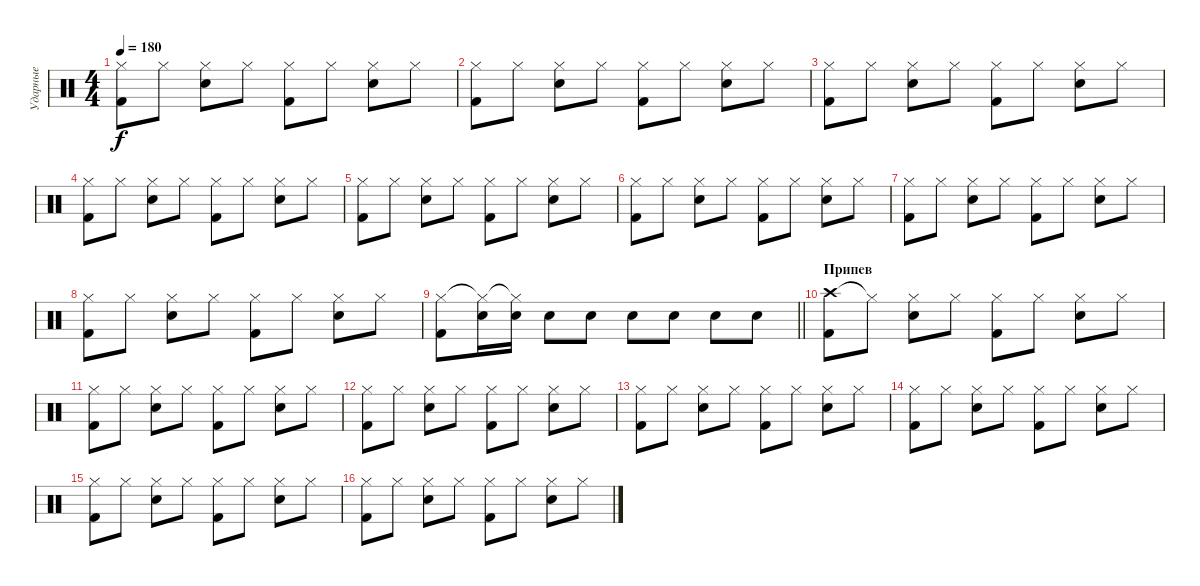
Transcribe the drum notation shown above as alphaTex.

\track ("Ударные" "Ударные") {instrument percussion}
\staff {score}
\articulation defaults
\ts (4 4)
\tempo 180
\clef neutral
\ks c
("Hi-Hat (closed)" "Kick (hit) 2").8{dy f} "Hi-Hat (closed)".8 ("Hi-Hat (closed)" "Electric Snare (hit)").8 "Hi-Hat (closed)".8 ("Hi-Hat (closed)" "Kick (hit) 2").8 "Hi-Hat (closed)".8 ("Hi-Hat (closed)" "Electric Snare (hit)").8 "Hi-Hat (closed)".8 |
("Hi-Hat (closed)" "Kick (hit) 2").8 "Hi-Hat (closed)".8 ("Hi-Hat (closed)" "Electric Snare (hit)").8 "Hi-Hat (closed)".8 ("Hi-Hat (closed)" "Kick (hit) 2").8 "Hi-Hat (closed)".8 ("Hi-Hat (closed)" "Electric Snare (hit)").8 "Hi-Hat (closed)".8 |
("Hi-Hat (closed)" "Kick (hit) 2").8 "Hi-Hat (closed)".8 ("Hi-Hat (closed)" "Electric Snare (hit)").8 "Hi-Hat (closed)".8 ("Hi-Hat (closed)" "Kick (hit) 2").8 "Hi-Hat (closed)".8 ("Hi-Hat (closed)" "Electric Snare (hit)").8 "Hi-Hat (closed)".8 |
("Hi-Hat (closed)" "Kick (hit) 2").8 "Hi-Hat (closed)".8 ("Hi-Hat (closed)" "Electric Snare (hit)").8 "Hi-Hat (closed)".8 ("Hi-Hat (closed)" "Kick (hit) 2").8 "Hi-Hat (closed)".8 ("Hi-Hat (closed)" "Electric Snare (hit)").8 "Hi-Hat (closed)".8 |
("Hi-Hat (closed)" "Kick (hit) 2").8 "Hi-Hat (closed)".8 ("Hi-Hat (closed)" "Electric Snare (hit)").8 "Hi-Hat (closed)".8 ("Hi-Hat (closed)" "Kick (hit) 2").8 "Hi-Hat (closed)".8 ("Hi-Hat (closed)" "Electric Snare (hit)").8 "Hi-Hat (closed)".8 |
("Hi-Hat (closed)" "Kick (hit) 2").8 "Hi-Hat (closed)".8 ("Hi-Hat (closed)" "Electric Snare (hit)").8 "Hi-Hat (closed)".8 ("Hi-Hat (closed)" "Kick (hit) 2").8 "Hi-Hat (closed)".8 ("Hi-Hat (closed)" "Electric Snare (hit)").8 "Hi-Hat (closed)".8 |
("Hi-Hat (closed)" "Kick (hit) 2").8 "Hi-Hat (closed)".8 ("Hi-Hat (closed)" "Electric Snare (hit)").8 "Hi-Hat (closed)".8 ("Hi-Hat (closed)" "Kick (hit) 2").8 "Hi-Hat (closed)".8 ("Hi-Hat (closed)" "Electric Snare (hit)").8 "Hi-Hat (closed)".8 |
("Hi-Hat (closed)" "Kick (hit) 2").8 "Hi-Hat (closed)".8 ("Hi-Hat (closed)" "Electric Snare (hit)").8 "Hi-Hat (closed)".8 ("Hi-Hat (closed)" "Kick (hit) 2").8 "Hi-Hat (closed)".8 ("Hi-Hat (closed)" "Electric Snare (hit)").8 "Hi-Hat (closed)".8 |
\barLineRight lightlight
("Hi-Hat (closed)" "Kick (hit) 2").8 ("Hi-Hat (closed)"{t} "Electric Snare (hit)").16 ("Hi-Hat (closed)"{t} "Electric Snare (hit)").16 "Electric Snare (hit)".8 "Electric Snare (hit)".8 "Electric Snare (hit)".8 "Electric Snare (hit)".8 "Electric Snare (hit)".8 "Electric Snare (hit)".8 |
\section ("" "Припев")
("Crash high (hit)" "Kick (hit) 2").8 "Hi-Hat (closed)"{t}.8 ("Hi-Hat (closed)" "Electric Snare (hit)").8 "Hi-Hat (closed)".8 ("Hi-Hat (closed)" "Kick (hit) 2").8 "Hi-Hat (closed)".8 ("Hi-Hat (closed)" "Electric Snare (hit)").8 "Hi-Hat (closed)".8 |
("Hi-Hat (closed)" "Kick (hit) 2").8 "Hi-Hat (closed)".8 ("Hi-Hat (closed)" "Electric Snare (hit)").8 "Hi-Hat (closed)".8 ("Hi-Hat (closed)" "Kick (hit) 2").8 "Hi-Hat (closed)".8 ("Hi-Hat (closed)" "Electric Snare (hit)").8 "Hi-Hat (closed)".8 |
("Hi-Hat (closed)" "Kick (hit) 2").8 "Hi-Hat (closed)".8 ("Hi-Hat (closed)" "Electric Snare (hit)").8 "Hi-Hat (closed)".8 ("Hi-Hat (closed)" "Kick (hit) 2").8 "Hi-Hat (closed)".8 ("Hi-Hat (closed)" "Electric Snare (hit)").8 "Hi-Hat (closed)".8 |
("Hi-Hat (closed)" "Kick (hit) 2").8 "Hi-Hat (closed)".8 ("Hi-Hat (closed)" "Electric Snare (hit)").8 "Hi-Hat (closed)".8 ("Hi-Hat (closed)" "Kick (hit) 2").8 "Hi-Hat (closed)".8 ("Hi-Hat (closed)" "Electric Snare (hit)").8 "Hi-Hat (closed)".8 |
("Hi-Hat (closed)" "Kick (hit) 2").8 "Hi-Hat (closed)".8 ("Hi-Hat (closed)" "Electric Snare (hit)").8 "Hi-Hat (closed)".8 ("Hi-Hat (closed)" "Kick (hit) 2").8 "Hi-Hat (closed)".8 ("Hi-Hat (closed)" "Electric Snare (hit)").8 "Hi-Hat (closed)".8 |
("Hi-Hat (closed)" "Kick (hit) 2").8 "Hi-Hat (closed)".8 ("Hi-Hat (closed)" "Electric Snare (hit)").8 "Hi-Hat (closed)".8 ("Hi-Hat (closed)" "Kick (hit) 2").8 "Hi-Hat (closed)".8 ("Hi-Hat (closed)" "Electric Snare (hit)").8 "Hi-Hat (closed)".8 |
("Hi-Hat (closed)" "Kick (hit) 2").8 "Hi-Hat (closed)".8 ("Hi-Hat (closed)" "Electric Snare (hit)").8 "Hi-Hat (closed)".8 ("Hi-Hat (closed)" "Kick (hit) 2").8 "Hi-Hat (closed)".8 ("Hi-Hat (closed)" "Electric Snare (hit)").8 "Hi-Hat (closed)".8
